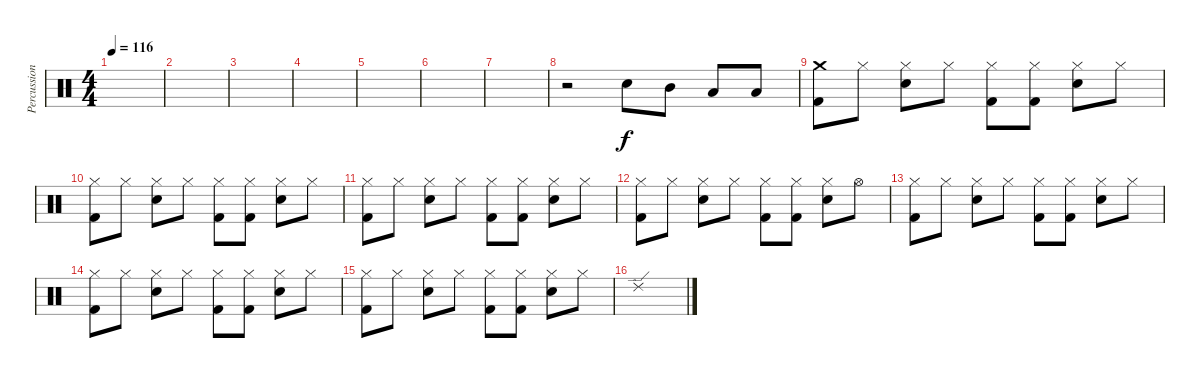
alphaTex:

\track ("Percussion" "Percussion") {instrument percussion}
\staff {score}
\articulation defaults
\ts (4 4)
\tempo 116
\clef neutral
\ks c
|
|
|
|
|
|
|
r.2 "Snare (hit) 2".8 "Mid Tom (hit)".8 "Low Tom (hit)".8 "Low Floor Tom (hit)".8 |
("Crash medium (hit)" "Kick (hit) 2").8 "Hi-Hat (closed)".8 ("Hi-Hat (closed)" "Snare (hit) 2").8 "Hi-Hat (closed)".8 ("Hi-Hat (closed)" "Kick (hit) 2").8 ("Hi-Hat (closed)" "Kick (hit) 2").8 ("Hi-Hat (closed)" "Snare (hit) 2").8 "Hi-Hat (closed)".8 |
("Hi-Hat (closed)" "Kick (hit) 2").8 "Hi-Hat (closed)".8 ("Hi-Hat (closed)" "Snare (hit) 2").8 "Hi-Hat (closed)".8 ("Hi-Hat (closed)" "Kick (hit) 2").8 ("Hi-Hat (closed)" "Kick (hit) 2").8 ("Hi-Hat (closed)" "Snare (hit) 2").8 "Hi-Hat (closed)".8 |
("Hi-Hat (closed)" "Kick (hit) 2").8 "Hi-Hat (closed)".8 ("Hi-Hat (closed)" "Snare (hit) 2").8 "Hi-Hat (closed)".8 ("Hi-Hat (closed)" "Kick (hit) 2").8 ("Hi-Hat (closed)" "Kick (hit) 2").8 ("Hi-Hat (closed)" "Snare (hit) 2").8 "Hi-Hat (closed)".8 |
("Hi-Hat (closed)" "Kick (hit) 2").8 "Hi-Hat (closed)".8 ("Hi-Hat (closed)" "Snare (hit) 2").8 "Hi-Hat (closed)".8 ("Hi-Hat (closed)" "Kick (hit) 2").8 ("Hi-Hat (closed)" "Kick (hit) 2").8 ("Hi-Hat (closed)" "Snare (hit) 2").8 "Hi-Hat (open)".8 |
("Hi-Hat (closed)" "Kick (hit) 2").8 "Hi-Hat (closed)".8 ("Hi-Hat (closed)" "Snare (hit) 2").8 "Hi-Hat (closed)".8 ("Hi-Hat (closed)" "Kick (hit) 2").8 ("Hi-Hat (closed)" "Kick (hit) 2").8 ("Hi-Hat (closed)" "Snare (hit) 2").8 "Hi-Hat (closed)".8 |
("Hi-Hat (closed)" "Kick (hit) 2").8 "Hi-Hat (closed)".8 ("Hi-Hat (closed)" "Snare (hit) 2").8 "Hi-Hat (closed)".8 ("Hi-Hat (closed)" "Kick (hit) 2").8 ("Hi-Hat (closed)" "Kick (hit) 2").8 ("Hi-Hat (closed)" "Snare (hit) 2").8 "Hi-Hat (closed)".8 |
("Hi-Hat (closed)" "Kick (hit) 2").8 "Hi-Hat (closed)".8 ("Hi-Hat (closed)" "Snare (hit) 2").8 "Hi-Hat (closed)".8 ("Hi-Hat (closed)" "Kick (hit) 2").8 ("Hi-Hat (closed)" "Kick (hit) 2").8 ("Hi-Hat (closed)" "Snare (hit) 2").8 "Hi-Hat (closed)".8 |
"Ride (edge) 2".1
